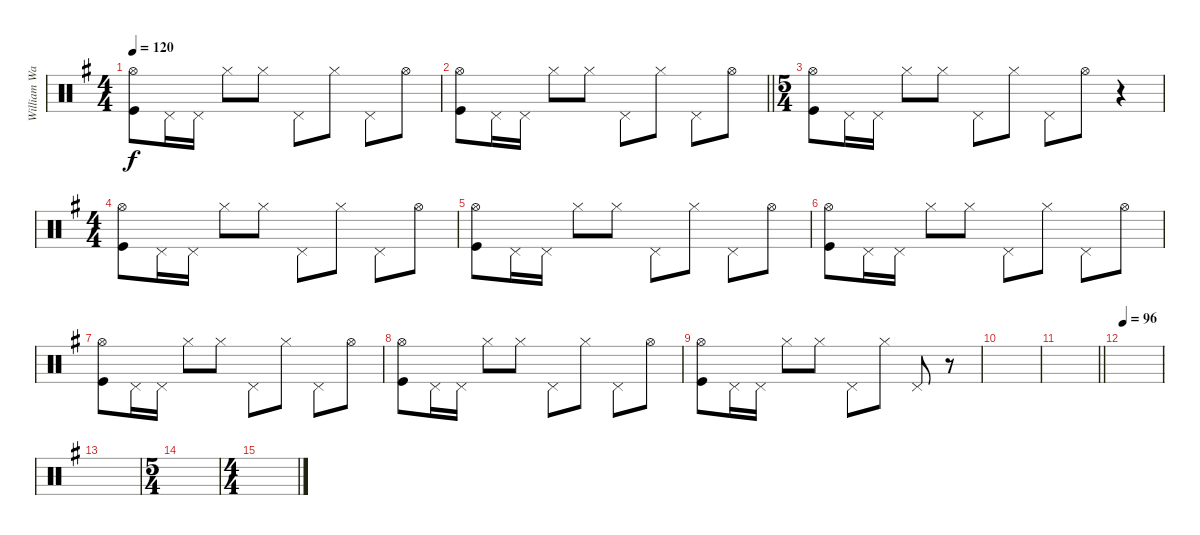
\track ("William Ward" "William Wa") {instrument percussion}
\staff {score}
\articulation defaults
\ts (4 4)
\tempo 120
\clef neutral
\ks g
("Hi-Hat (open)" "Kick (hit)").8{dy f} "Pedal Hi-Hat (hit)".16 "Pedal Hi-Hat (hit)".16 "Hi-Hat (closed)".8 "Hi-Hat (closed)".8 "Pedal Hi-Hat (hit)".8 "Hi-Hat (closed)".8 "Pedal Hi-Hat (hit)".8 "Hi-Hat (open)".8 |
\barLineRight lightlight
("Hi-Hat (open)" "Kick (hit)").8{volume 8} "Pedal Hi-Hat (hit)".16 "Pedal Hi-Hat (hit)".16 "Hi-Hat (closed)".8 "Hi-Hat (closed)".8 "Pedal Hi-Hat (hit)".8 "Hi-Hat (closed)".8 "Pedal Hi-Hat (hit)".8 "Hi-Hat (open)".8 |
\ts (5 4)
("Hi-Hat (open)" "Kick (hit)").8 "Pedal Hi-Hat (hit)".16 "Pedal Hi-Hat (hit)".16 "Hi-Hat (closed)".8 "Hi-Hat (closed)".8 "Pedal Hi-Hat (hit)".8 "Hi-Hat (closed)".8 "Pedal Hi-Hat (hit)".8 "Hi-Hat (open)".8 r.4 |
\ts (4 4)
("Hi-Hat (open)" "Kick (hit)").8 "Pedal Hi-Hat (hit)".16 "Pedal Hi-Hat (hit)".16 "Hi-Hat (closed)".8 "Hi-Hat (closed)".8 "Pedal Hi-Hat (hit)".8 "Hi-Hat (closed)".8 "Pedal Hi-Hat (hit)".8 "Hi-Hat (open)".8 |
("Hi-Hat (open)" "Kick (hit)").8 "Pedal Hi-Hat (hit)".16 "Pedal Hi-Hat (hit)".16 "Hi-Hat (closed)".8 "Hi-Hat (closed)".8 "Pedal Hi-Hat (hit)".8 "Hi-Hat (closed)".8 "Pedal Hi-Hat (hit)".8{volume 0} "Hi-Hat (open)".8 |
("Hi-Hat (open)" "Kick (hit)").8 "Pedal Hi-Hat (hit)".16 "Pedal Hi-Hat (hit)".16 "Hi-Hat (closed)".8 "Hi-Hat (closed)".8 "Pedal Hi-Hat (hit)".8 "Hi-Hat (closed)".8 "Pedal Hi-Hat (hit)".8 "Hi-Hat (open)".8 |
("Hi-Hat (open)" "Kick (hit)").8 "Pedal Hi-Hat (hit)".16 "Pedal Hi-Hat (hit)".16 "Hi-Hat (closed)".8 "Hi-Hat (closed)".8 "Pedal Hi-Hat (hit)".8 "Hi-Hat (closed)".8 "Pedal Hi-Hat (hit)".8 "Hi-Hat (open)".8 |
("Hi-Hat (open)" "Kick (hit)").8 "Pedal Hi-Hat (hit)".16 "Pedal Hi-Hat (hit)".16 "Hi-Hat (closed)".8 "Hi-Hat (closed)".8 "Pedal Hi-Hat (hit)".8 "Hi-Hat (closed)".8 "Pedal Hi-Hat (hit)".8 "Hi-Hat (open)".8 |
("Hi-Hat (open)" "Kick (hit)").8 "Pedal Hi-Hat (hit)".16 "Pedal Hi-Hat (hit)".16 "Hi-Hat (closed)".8 "Hi-Hat (closed)".8 "Pedal Hi-Hat (hit)".8 "Hi-Hat (closed)".8 "Pedal Hi-Hat (hit)".8 r.8 |
|
\barLineRight lightlight
|
\tempo 96
|
|
\ts (5 4)
|
\ts (4 4)
